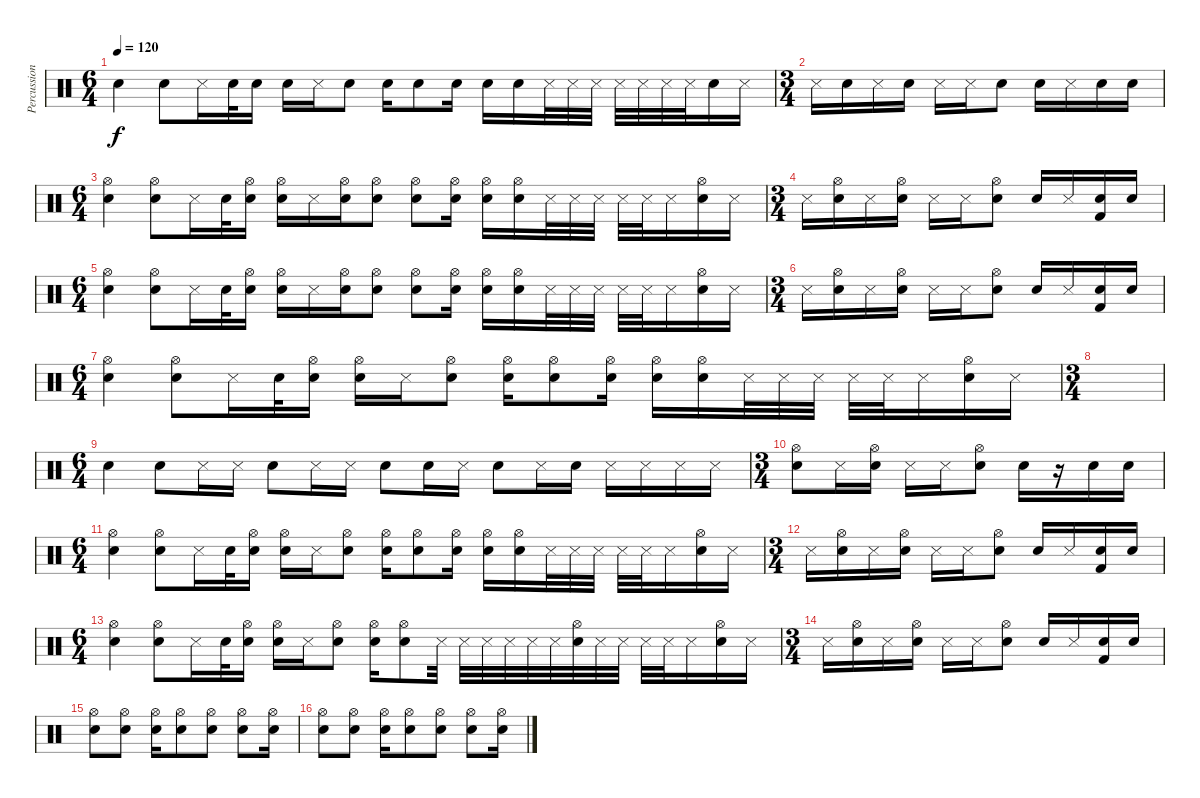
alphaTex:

\track ("Percussions" "Percussion") {instrument percussion}
\staff {score}
\articulation defaults
\ts (6 4)
\tempo 120
\clef neutral
\ks c "Snare (hit) 2".4{dy f} "Snare (hit) 2".8 "Metronome (hit)".16 "Snare (hit) 2".32 "Snare (hit) 2".16 "Snare (hit) 2".16 "Metronome (hit)".16 "Snare (hit) 2".8 "Snare (hit) 2".16 "Snare (hit) 2".8 "Snare (hit) 2".16 "Snare (hit) 2".16 "Snare (hit) 2".16 "Metronome (hit)".32 "Metronome (hit)".32 "Metronome (hit)".32 "Metronome (hit)".32 "Metronome (hit)".32 "Metronome (hit)".32 "Metronome (hit)".32 "Snare (hit) 2".16 "Metronome (hit)".16
|
\ts (3 4)
"Metronome (hit)".16 "Snare (hit) 2".16 "Metronome (hit)".16 "Snare (hit) 2".16 "Metronome (hit)".16 "Metronome (hit)".16 "Snare (hit) 2".8 "Snare (hit) 2".16 "Metronome (hit)".16 "Snare (hit) 2".16 "Snare (hit) 2".16 |
\ts (6 4)
("Hi-Hat (open)" "Snare (hit) 2").4 ("Hi-Hat (open)" "Snare (hit) 2").8 "Metronome (hit)".16 "Snare (hit) 2".32 ("Hi-Hat (open)" "Snare (hit) 2").16 ("Hi-Hat (open)" "Snare (hit) 2").16 "Metronome (hit)".16 ("Hi-Hat (open)" "Snare (hit) 2").16 ("Hi-Hat (open)" "Snare (hit) 2").8 ("Hi-Hat (open)" "Snare (hit) 2").8 ("Hi-Hat (open)" "Snare (hit) 2").16 ("Hi-Hat (open)" "Snare (hit) 2").16 ("Hi-Hat (open)" "Snare (hit) 2").16 "Metronome (hit)".32 "Metronome (hit)".32 "Metronome (hit)".32 "Metronome (hit)".32 "Metronome (hit)".32 "Metronome (hit)".16 ("Hi-Hat (open)" "Snare (hit) 2").16 "Metronome (hit)".16 |
\ts (3 4)
"Metronome (hit)".16 ("Hi-Hat (open)" "Snare (hit) 2").16 "Metronome (hit)".16 ("Hi-Hat (open)" "Snare (hit) 2").16 "Metronome (hit)".16 "Metronome (hit)".16 ("Hi-Hat (open)" "Snare (hit) 2").8 "Snare (hit) 2".16 "Metronome (hit)".16 ("Kick (hit) 2" "Snare (hit) 2").16 "Snare (hit) 2".16 |
\ts (6 4)
("Hi-Hat (open)" "Snare (hit) 2").4 ("Hi-Hat (open)" "Snare (hit) 2").8 "Metronome (hit)".16 "Snare (hit) 2".32 ("Hi-Hat (open)" "Snare (hit) 2").16 ("Hi-Hat (open)" "Snare (hit) 2").16 "Metronome (hit)".16 ("Hi-Hat (open)" "Snare (hit) 2").16 ("Hi-Hat (open)" "Snare (hit) 2").8 ("Hi-Hat (open)" "Snare (hit) 2").8 ("Hi-Hat (open)" "Snare (hit) 2").16 ("Hi-Hat (open)" "Snare (hit) 2").16 ("Hi-Hat (open)" "Snare (hit) 2").16 "Metronome (hit)".32 "Metronome (hit)".32 "Metronome (hit)".32 "Metronome (hit)".32 "Metronome (hit)".32 "Metronome (hit)".16 ("Hi-Hat (open)" "Snare (hit) 2").16 "Metronome (hit)".16 |
\ts (3 4)
"Metronome (hit)".16 ("Hi-Hat (open)" "Snare (hit) 2").16 "Metronome (hit)".16 ("Hi-Hat (open)" "Snare (hit) 2").16 "Metronome (hit)".16 "Metronome (hit)".16 ("Hi-Hat (open)" "Snare (hit) 2").8 "Snare (hit) 2".16 "Metronome (hit)".16 ("Kick (hit) 2" "Snare (hit) 2").16 "Snare (hit) 2".16 |
\ts (6 4)
("Hi-Hat (open)" "Snare (hit) 2").4 ("Hi-Hat (open)" "Snare (hit) 2").8 "Metronome (hit)".16 "Snare (hit) 2".32 ("Hi-Hat (open)" "Snare (hit) 2").16 ("Hi-Hat (open)" "Snare (hit) 2").16 "Metronome (hit)".16 ("Hi-Hat (open)" "Snare (hit) 2").8 ("Hi-Hat (open)" "Snare (hit) 2").16 ("Hi-Hat (open)" "Snare (hit) 2").8 ("Hi-Hat (open)" "Snare (hit) 2").16 ("Hi-Hat (open)" "Snare (hit) 2").16 ("Hi-Hat (open)" "Snare (hit) 2").16 "Metronome (hit)".32 "Metronome (hit)".32 "Metronome (hit)".32 "Metronome (hit)".32 "Metronome (hit)".32 "Metronome (hit)".16 ("Hi-Hat (open)" "Snare (hit) 2").16 "Metronome (hit)".16 |
\ts (3 4)
|
\ts (6 4)
"Snare (hit) 2".4 "Snare (hit) 2".8 "Metronome (hit)".16 "Metronome (hit)".16 "Snare (hit) 2".8 "Metronome (hit)".16 "Metronome (hit)".16 "Snare (hit) 2".8 "Snare (hit) 2".16 "Metronome (hit)".16 "Snare (hit) 2".8 "Metronome (hit)".16 "Snare (hit) 2".16 "Metronome (hit)".16 "Metronome (hit)".16 "Metronome (hit)".16 "Metronome (hit)".16 |
\ts (3 4)
("Hi-Hat (open)" "Snare (hit) 2").8 "Metronome (hit)".16 ("Hi-Hat (open)" "Snare (hit) 2").16 "Metronome (hit)".16 "Metronome (hit)".16 ("Hi-Hat (open)" "Snare (hit) 2").8 "Snare (hit) 2".16 r.16 "Snare (hit) 2".16 "Snare (hit) 2".16 |
\ts (6 4)
("Hi-Hat (open)" "Snare (hit) 2").4 ("Hi-Hat (open)" "Snare (hit) 2").8 "Metronome (hit)".16 "Snare (hit) 2".32 ("Hi-Hat (open)" "Snare (hit) 2").16 ("Hi-Hat (open)" "Snare (hit) 2").16 "Metronome (hit)".16 ("Hi-Hat (open)" "Snare (hit) 2").8 ("Hi-Hat (open)" "Snare (hit) 2").16 ("Hi-Hat (open)" "Snare (hit) 2").8 ("Hi-Hat (open)" "Snare (hit) 2").16 ("Hi-Hat (open)" "Snare (hit) 2").16 ("Hi-Hat (open)" "Snare (hit) 2").16 "Metronome (hit)".32 "Metronome (hit)".32 "Metronome (hit)".32 "Metronome (hit)".32 "Metronome (hit)".32 "Metronome (hit)".16 ("Hi-Hat (open)" "Snare (hit) 2").16 "Metronome (hit)".16 |
\ts (3 4)
"Metronome (hit)".16 ("Hi-Hat (open)" "Snare (hit) 2").16 "Metronome (hit)".16 ("Hi-Hat (open)" "Snare (hit) 2").16 "Metronome (hit)".16 "Metronome (hit)".16 ("Hi-Hat (open)" "Snare (hit) 2").8 "Snare (hit) 2".16 "Metronome (hit)".16 ("Kick (hit) 2" "Snare (hit) 2").16 "Snare (hit) 2".16 |
\ts (6 4)
("Hi-Hat (open)" "Snare (hit) 2").4 ("Hi-Hat (open)" "Snare (hit) 2").8 "Metronome (hit)".16 "Snare (hit) 2".32 ("Hi-Hat (open)" "Snare (hit) 2").16 ("Hi-Hat (open)" "Snare (hit) 2").16 "Metronome (hit)".16 ("Hi-Hat (open)" "Snare (hit) 2").8 ("Hi-Hat (open)" "Snare (hit) 2").16 ("Hi-Hat (open)" "Snare (hit) 2").8 "Metronome (hit)".32 "Metronome (hit)".32 "Metronome (hit)".32 "Metronome (hit)".32 "Metronome (hit)".32 "Metronome (hit)".32 ("Hi-Hat (open)" "Snare (hit) 2").32 "Metronome (hit)".32 "Metronome (hit)".32 "Metronome (hit)".32 "Metronome (hit)".32 "Metronome (hit)".16 ("Hi-Hat (open)" "Snare (hit) 2").16 "Metronome (hit)".16 |
\ts (3 4)
"Metronome (hit)".16 ("Hi-Hat (open)" "Snare (hit) 2").16 "Metronome (hit)".16 ("Hi-Hat (open)" "Snare (hit) 2").16 "Metronome (hit)".16 "Metronome (hit)".16 ("Hi-Hat (open)" "Snare (hit) 2").8 "Snare (hit) 2".16 "Metronome (hit)".16 ("Kick (hit) 2" "Snare (hit) 2").16 "Snare (hit) 2".16 |
("Hi-Hat (open)" "Snare (hit) 2").8 ("Hi-Hat (open)" "Snare (hit) 2").8 ("Hi-Hat (open)" "Snare (hit) 2").16 ("Hi-Hat (open)" "Snare (hit) 2").8 ("Hi-Hat (open)" "Snare (hit) 2").8 ("Hi-Hat (open)" "Snare (hit) 2").8 ("Hi-Hat (open)" "Snare (hit) 2").16 |
("Hi-Hat (open)" "Snare (hit) 2").8 ("Hi-Hat (open)" "Snare (hit) 2").8 ("Hi-Hat (open)" "Snare (hit) 2").16 ("Hi-Hat (open)" "Snare (hit) 2").8 ("Hi-Hat (open)" "Snare (hit) 2").8 ("Hi-Hat (open)" "Snare (hit) 2").8 ("Hi-Hat (open)" "Snare (hit) 2").16
